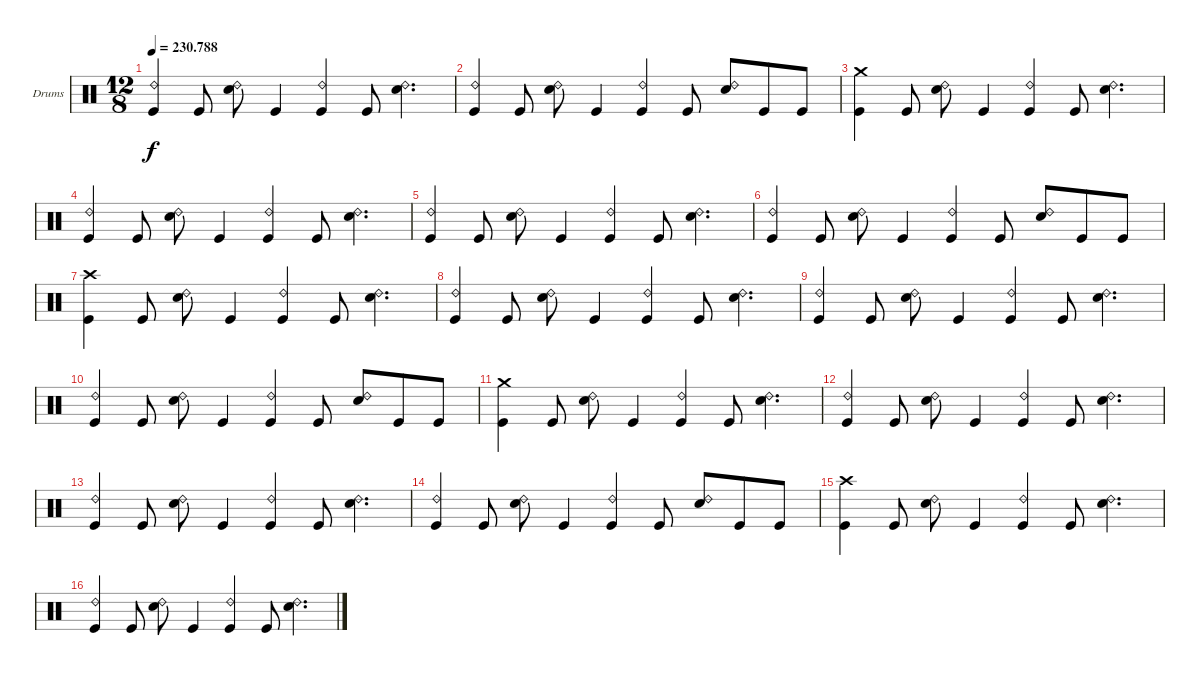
\bracketExtendMode groupsimilarinstruments
\firstSystemTrackNameOrientation horizontal
\otherSystemsTrackNameOrientation horizontal
\track ("Ударные" "Drums") {instrument percussion}
\staff {score}
\articulation defaults
\ts (12 8)
\tempo
230.788
\accidentals auto
\clef neutral
\ottava regular
\simile none
\ks c
("Kick (hit)" "Ride (bell) 2").4{dy f} "Kick (hit)".8 ("Ride (bell) 2" "Snare (hit) 2").8 "Kick (hit)".4 ("Kick (hit)" "Ride (bell) 2").4 "Kick (hit)".8 ("Ride (bell) 2" "Snare (hit) 2").4{d} |
("Kick (hit)" "Ride (bell) 2").4 "Kick (hit)".8 ("Ride (bell) 2" "Snare (hit) 2").8 "Kick (hit)".4 ("Ride (bell) 2" "Kick (hit)").4 "Kick (hit)".8 ("Ride (bell) 2" "Snare (hit) 2").8 "Kick (hit)".8 "Kick (hit)".8 |
("Crash medium (hit)" "Kick (hit)").4 "Kick (hit)".8 ("Ride (bell) 2" "Snare (hit) 2").8 "Kick (hit)".4 ("Ride (bell) 2" "Kick (hit)").4 "Kick (hit)".8 ("Ride (bell) 2" "Snare (hit) 2").4{d} |
("Ride (bell) 2" "Kick (hit)").4 "Kick (hit)".8 ("Ride (bell) 2" "Snare (hit) 2").8 "Kick (hit)".4 ("Ride (bell) 2" "Kick (hit)").4 "Kick (hit)".8 ("Ride (bell) 2" "Snare (hit) 2").4{d} |
("Kick (hit)" "Ride (bell) 2").4 "Kick (hit)".8 ("Ride (bell) 2" "Snare (hit) 2").8 "Kick (hit)".4 ("Kick (hit)" "Ride (bell) 2").4 "Kick (hit)".8 ("Ride (bell) 2" "Snare (hit) 2").4{d} |
("Kick (hit)" "Ride (bell) 2").4 "Kick (hit)".8 ("Ride (bell) 2" "Snare (hit) 2").8 "Kick (hit)".4 ("Ride (bell) 2" "Kick (hit)").4 "Kick (hit)".8 ("Ride (bell) 2" "Snare (hit) 2").8 "Kick (hit)".8 "Kick (hit)".8 |
("Crash high (hit)" "Kick (hit)").4 "Kick (hit)".8 ("Ride (bell) 2" "Snare (hit) 2").8 "Kick (hit)".4 ("Ride (bell) 2" "Kick (hit)").4 "Kick (hit)".8 ("Ride (bell) 2" "Snare (hit) 2").4{d} |
("Ride (bell) 2" "Kick (hit)").4 "Kick (hit)".8 ("Ride (bell) 2" "Snare (hit) 2").8 "Kick (hit)".4 ("Ride (bell) 2" "Kick (hit)").4 "Kick (hit)".8 ("Ride (bell) 2" "Snare (hit) 2").4{d} |
("Kick (hit)" "Ride (bell) 2").4 "Kick (hit)".8 ("Ride (bell) 2" "Snare (hit) 2").8 "Kick (hit)".4 ("Kick (hit)" "Ride (bell) 2").4 "Kick (hit)".8 ("Ride (bell) 2" "Snare (hit) 2").4{d} |
("Kick (hit)" "Ride (bell) 2").4 "Kick (hit)".8 ("Ride (bell) 2" "Snare (hit) 2").8 "Kick (hit)".4 ("Ride (bell) 2" "Kick (hit)").4 "Kick (hit)".8 ("Ride (bell) 2" "Snare (hit) 2").8 "Kick (hit)".8 "Kick (hit)".8 |
("Crash medium (hit)" "Kick (hit)").4 "Kick (hit)".8 ("Ride (bell) 2" "Snare (hit) 2").8 "Kick (hit)".4 ("Ride (bell) 2" "Kick (hit)").4 "Kick (hit)".8 ("Ride (bell) 2" "Snare (hit) 2").4{d} |
("Ride (bell) 2" "Kick (hit)").4 "Kick (hit)".8 ("Ride (bell) 2" "Snare (hit) 2").8 "Kick (hit)".4 ("Ride (bell) 2" "Kick (hit)").4 "Kick (hit)".8 ("Ride (bell) 2" "Snare (hit) 2").4{d} |
("Kick (hit)" "Ride (bell) 2").4 "Kick (hit)".8 ("Ride (bell) 2" "Snare (hit) 2").8 "Kick (hit)".4 ("Kick (hit)" "Ride (bell) 2").4 "Kick (hit)".8 ("Ride (bell) 2" "Snare (hit) 2").4{d} |
("Kick (hit)" "Ride (bell) 2").4 "Kick (hit)".8 ("Ride (bell) 2" "Snare (hit) 2").8 "Kick (hit)".4 ("Ride (bell) 2" "Kick (hit)").4 "Kick (hit)".8 ("Ride (bell) 2" "Snare (hit) 2").8 "Kick (hit)".8 "Kick (hit)".8 |
("Crash high (hit)" "Kick (hit)").4 "Kick (hit)".8 ("Ride (bell) 2" "Snare (hit) 2").8 "Kick (hit)".4 ("Ride (bell) 2" "Kick (hit)").4 "Kick (hit)".8 ("Ride (bell) 2" "Snare (hit) 2").4{d} |
("Ride (bell) 2" "Kick (hit)").4 "Kick (hit)".8 ("Ride (bell) 2" "Snare (hit) 2").8 "Kick (hit)".4 ("Ride (bell) 2" "Kick (hit)").4 "Kick (hit)".8 ("Ride (bell) 2" "Snare (hit) 2").4{d}
